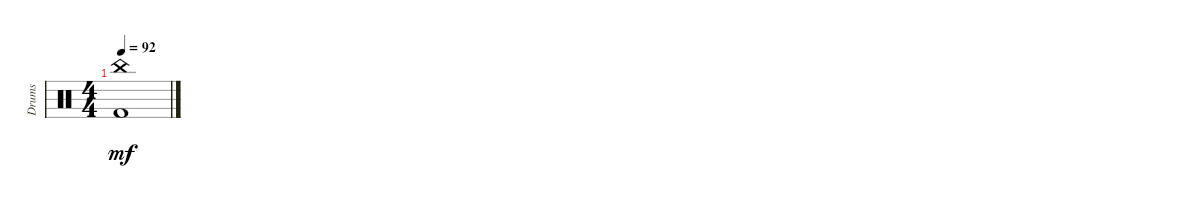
\track ("Drums" "Drums") {instrument percussion}
\staff {score}
\articulation defaults
\ts (4 4)
\tempo 92
\clef neutral
\ks c
("Kick (hit) 2" "China (hit)").1{dy mf}
